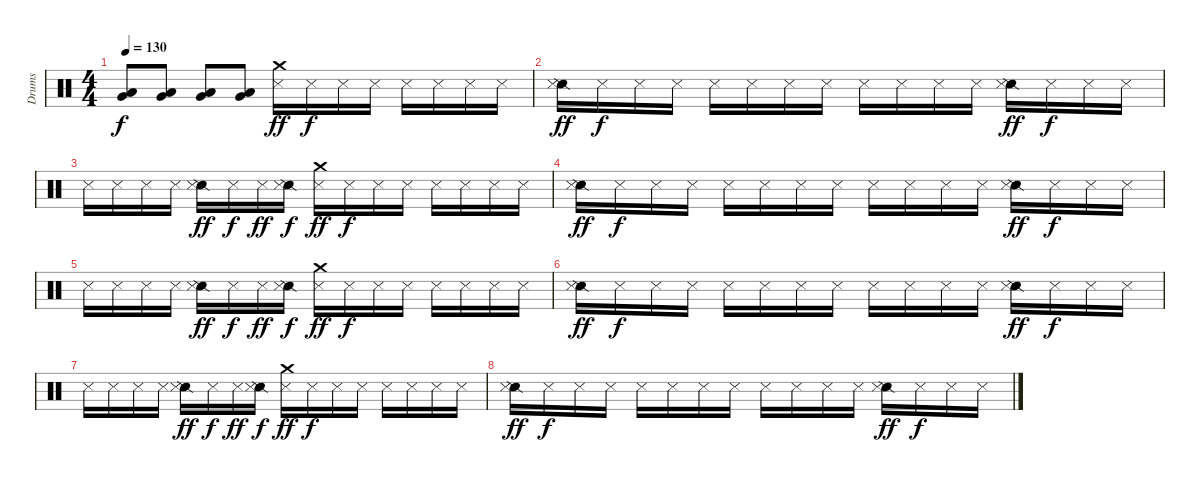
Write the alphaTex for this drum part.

\track ("Drums" "Drums") {instrument percussion}
\staff {score}
\articulation defaults
\ts (4 4)
\tempo 130
\clef neutral
\ks c
("Very Low Tom (hit)" "Low Floor Tom (hit)").8{bd 120 dy f} ("Very Low Tom (hit)" "Low Floor Tom (hit)").8{bd 60} ("Very Low Tom (hit)" "Low Floor Tom (hit)").8{bd 60} ("Very Low Tom (hit)" "Low Floor Tom (hit)").8{bd 60} ("Crash medium (hit)" "Metronome (hit)").16{dy ff} "Metronome (hit)".16{dy f} "Metronome (hit)".16 "Metronome (hit)".16 "Metronome (hit)".16 "Metronome (hit)".16 "Metronome (hit)".16 "Metronome (hit)".16 |
("Snare (side stick) 2" "Metronome (hit)").16{dy ff} "Metronome (hit)".16{dy f} "Metronome (hit)".16 "Metronome (hit)".16 "Metronome (hit)".16 "Metronome (hit)".16 "Metronome (hit)".16 "Metronome (hit)".16 "Metronome (hit)".16 "Metronome (hit)".16 "Metronome (hit)".16 "Metronome (hit)".16 ("Snare (side stick) 2" "Metronome (hit)").16{dy ff} "Metronome (hit)".16{dy f} "Metronome (hit)".16 "Metronome (hit)".16 |
"Metronome (hit)".16 "Metronome (hit)".16 "Metronome (hit)".16 "Metronome (hit)".16 ("Snare (side stick) 2" "Metronome (hit)").16{dy ff} "Metronome (hit)".16{dy f} "Metronome (hit)".16{dy ff} ("Snare (side stick) 2" "Metronome (hit)").16{dy f} ("Crash medium (hit)" "Metronome (hit)").16{dy ff} "Metronome (hit)".16{dy f} "Metronome (hit)".16 "Metronome (hit)".16 "Metronome (hit)".16 "Metronome (hit)".16 "Metronome (hit)".16 "Metronome (hit)".16 |
("Snare (side stick) 2" "Metronome (hit)").16{dy ff} "Metronome (hit)".16{dy f} "Metronome (hit)".16 "Metronome (hit)".16 "Metronome (hit)".16 "Metronome (hit)".16 "Metronome (hit)".16 "Metronome (hit)".16 "Metronome (hit)".16 "Metronome (hit)".16 "Metronome (hit)".16 "Metronome (hit)".16 ("Snare (side stick) 2" "Metronome (hit)").16{dy ff} "Metronome (hit)".16{dy f} "Metronome (hit)".16 "Metronome (hit)".16 |
"Metronome (hit)".16 "Metronome (hit)".16 "Metronome (hit)".16 "Metronome (hit)".16 ("Snare (side stick) 2" "Metronome (hit)").16{dy ff} "Metronome (hit)".16{dy f} "Metronome (hit)".16{dy ff} ("Snare (side stick) 2" "Metronome (hit)").16{dy f} ("Crash medium (hit)" "Metronome (hit)").16{dy ff} "Metronome (hit)".16{dy f} "Metronome (hit)".16 "Metronome (hit)".16 "Metronome (hit)".16 "Metronome (hit)".16 "Metronome (hit)".16 "Metronome (hit)".16 |
("Snare (side stick) 2" "Metronome (hit)").16{dy ff} "Metronome (hit)".16{dy f} "Metronome (hit)".16 "Metronome (hit)".16 "Metronome (hit)".16 "Metronome (hit)".16 "Metronome (hit)".16 "Metronome (hit)".16 "Metronome (hit)".16 "Metronome (hit)".16 "Metronome (hit)".16 "Metronome (hit)".16 ("Snare (side stick) 2" "Metronome (hit)").16{dy ff} "Metronome (hit)".16{dy f} "Metronome (hit)".16 "Metronome (hit)".16 |
"Metronome (hit)".16 "Metronome (hit)".16 "Metronome (hit)".16 "Metronome (hit)".16 ("Snare (side stick) 2" "Metronome (hit)").16{dy ff} "Metronome (hit)".16{dy f} "Metronome (hit)".16{dy ff} ("Snare (side stick) 2" "Metronome (hit)").16{dy f} ("Crash medium (hit)" "Metronome (hit)").16{dy ff} "Metronome (hit)".16{dy f} "Metronome (hit)".16 "Metronome (hit)".16 "Metronome (hit)".16 "Metronome (hit)".16 "Metronome (hit)".16 "Metronome (hit)".16 |
("Snare (side stick) 2" "Metronome (hit)").16{dy ff} "Metronome (hit)".16{dy f} "Metronome (hit)".16 "Metronome (hit)".16 "Metronome (hit)".16 "Metronome (hit)".16 "Metronome (hit)".16 "Metronome (hit)".16 "Metronome (hit)".16 "Metronome (hit)".16 "Metronome (hit)".16 "Metronome (hit)".16 ("Snare (side stick) 2" "Metronome (hit)").16{dy ff} "Metronome (hit)".16{dy f} "Metronome (hit)".16 "Metronome (hit)".16
